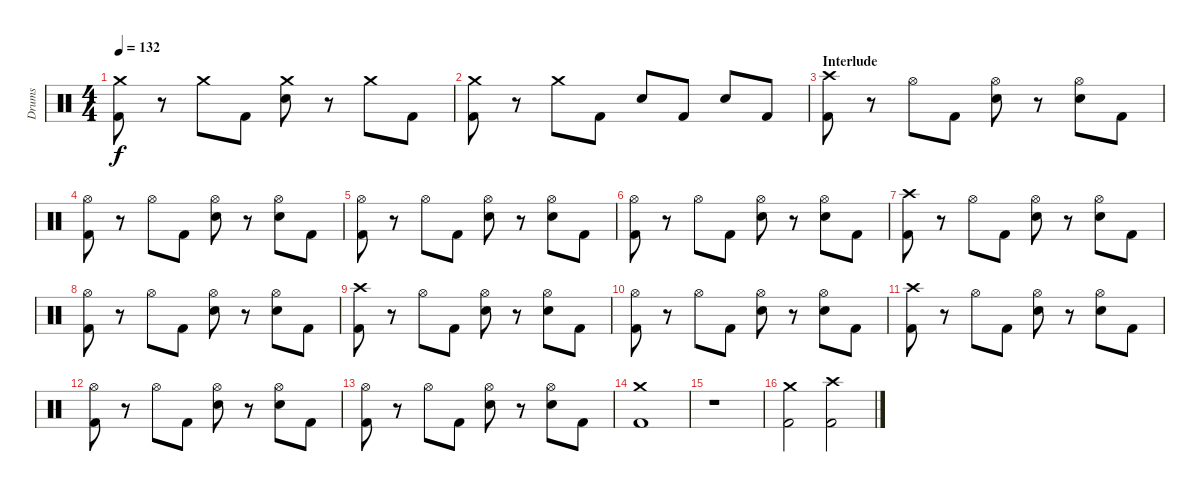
\track ("Drums" "Drums") {instrument percussion}
\staff {score}
\articulation defaults
\ts (4 4)
\tempo 132
\clef neutral
\ks c
("Crash medium (hit)" "Kick (hit) 2").8{dy f} r.8 "Crash medium (hit)".8 "Kick (hit) 2".8 ("Crash medium (hit)" "Snare (hit) 2").8 r.8 "Crash medium (hit)".8 "Kick (hit) 2".8 |
("Crash medium (hit)" "Kick (hit) 2").8 r.8 "Crash medium (hit)".8 "Kick (hit) 2".8 "Snare (hit) 2".8 "Kick (hit) 2".8 "Snare (hit) 2".8 "Kick (hit) 2".8 |
\section ("" "Interlude")
("Crash high (hit)" "Kick (hit) 2").8 r.8 "Hi-Hat (open)".8 "Kick (hit) 2".8 ("Hi-Hat (open)" "Snare (hit) 2").8 r.8 ("Hi-Hat (open)" "Snare (hit) 2").8 "Kick (hit) 2".8 |
("Hi-Hat (open)" "Kick (hit) 2").8 r.8 "Hi-Hat (open)".8 "Kick (hit) 2".8 ("Hi-Hat (open)" "Snare (hit) 2").8 r.8 ("Hi-Hat (open)" "Snare (hit) 2").8 "Kick (hit) 2".8 |
("Hi-Hat (open)" "Kick (hit) 2").8 r.8 "Hi-Hat (open)".8 "Kick (hit) 2".8 ("Hi-Hat (open)" "Snare (hit) 2").8 r.8 ("Hi-Hat (open)" "Snare (hit) 2").8 "Kick (hit) 2".8 |
("Hi-Hat (open)" "Kick (hit) 2").8 r.8 "Hi-Hat (open)".8 "Kick (hit) 2".8 ("Hi-Hat (open)" "Snare (hit) 2").8 r.8 ("Hi-Hat (open)" "Snare (hit) 2").8 "Kick (hit) 2".8 |
("Crash high (hit)" "Kick (hit) 2").8 r.8 "Hi-Hat (open)".8 "Kick (hit) 2".8 ("Hi-Hat (open)" "Snare (hit) 2").8 r.8 ("Hi-Hat (open)" "Snare (hit) 2").8 "Kick (hit) 2".8 |
("Hi-Hat (open)" "Kick (hit) 2").8 r.8 "Hi-Hat (open)".8 "Kick (hit) 2".8 ("Hi-Hat (open)" "Snare (hit) 2").8 r.8 ("Hi-Hat (open)" "Snare (hit) 2").8 "Kick (hit) 2".8 |
("Crash high (hit)" "Kick (hit) 2").8 r.8 "Hi-Hat (open)".8 "Kick (hit) 2".8 ("Hi-Hat (open)" "Snare (hit) 2").8 r.8 ("Hi-Hat (open)" "Snare (hit) 2").8 "Kick (hit) 2".8 |
("Hi-Hat (open)" "Kick (hit) 2").8 r.8 "Hi-Hat (open)".8 "Kick (hit) 2".8 ("Hi-Hat (open)" "Snare (hit) 2").8 r.8 ("Hi-Hat (open)" "Snare (hit) 2").8 "Kick (hit) 2".8 |
("Crash high (hit)" "Kick (hit) 2").8 r.8 "Hi-Hat (open)".8 "Kick (hit) 2".8 ("Hi-Hat (open)" "Snare (hit) 2").8 r.8 ("Hi-Hat (open)" "Snare (hit) 2").8 "Kick (hit) 2".8 |
("Hi-Hat (open)" "Kick (hit) 2").8 r.8 "Hi-Hat (open)".8 "Kick (hit) 2".8 ("Hi-Hat (open)" "Snare (hit) 2").8 r.8 ("Hi-Hat (open)" "Snare (hit) 2").8 "Kick (hit) 2".8 |
("Hi-Hat (open)" "Kick (hit) 2").8 r.8 "Hi-Hat (open)".8 "Kick (hit) 2".8 ("Hi-Hat (open)" "Snare (hit) 2").8 r.8 ("Hi-Hat (open)" "Snare (hit) 2").8 "Kick (hit) 2".8 |
("Crash medium (hit)" "Kick (hit) 2").1 |
r.1 |
("Crash medium (hit)" "Kick (hit) 2").2 ("Crash high (hit)" "Kick (hit) 2").2
